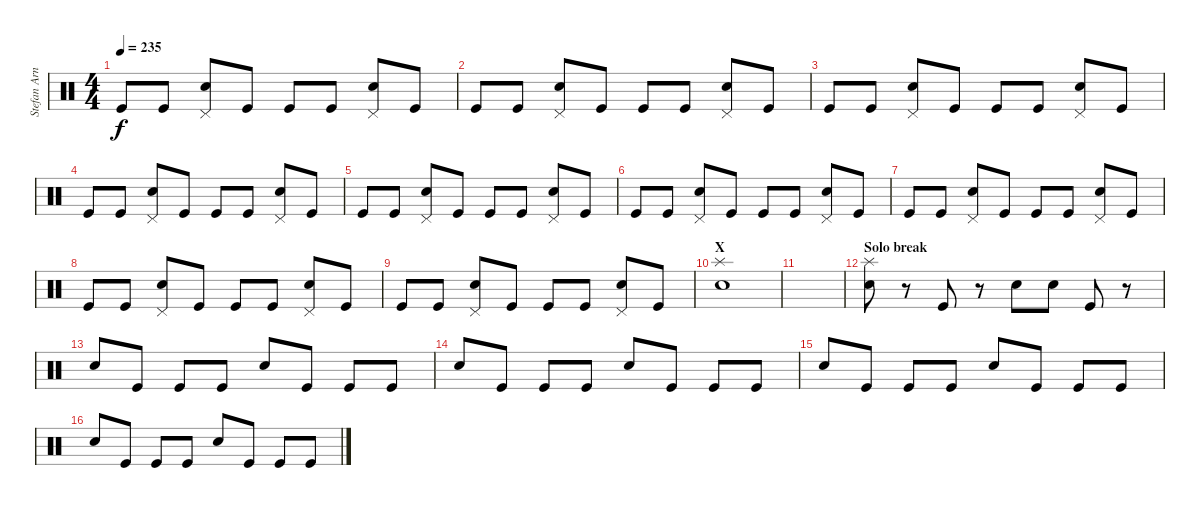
\track ("Stefan Arnold" "Stefan Arn") {instrument percussion}
\staff {score}
\articulation defaults
\ts (4 4)
\tempo 235
\clef neutral
\ks c "Kick (hit)".8{dy f} "Kick (hit)".8
("Electric Snare (hit)" "Pedal Hi-Hat (hit)").8 "Kick (hit)".8 "Kick (hit)".8 "Kick (hit)".8 ("Electric Snare (hit)" "Pedal Hi-Hat (hit)").8 "Kick (hit)".8 |
"Kick (hit)".8 "Kick (hit)".8 ("Electric Snare (hit)" "Pedal Hi-Hat (hit)").8 "Kick (hit)".8 "Kick (hit)".8 "Kick (hit)".8 ("Electric Snare (hit)" "Pedal Hi-Hat (hit)").8 "Kick (hit)".8 |
"Kick (hit)".8 "Kick (hit)".8 ("Electric Snare (hit)" "Pedal Hi-Hat (hit)").8 "Kick (hit)".8 "Kick (hit)".8 "Kick (hit)".8 ("Electric Snare (hit)" "Pedal Hi-Hat (hit)").8 "Kick (hit)".8 |
"Kick (hit)".8 "Kick (hit)".8 ("Electric Snare (hit)" "Pedal Hi-Hat (hit)").8 "Kick (hit)".8 "Kick (hit)".8 "Kick (hit)".8 ("Electric Snare (hit)" "Pedal Hi-Hat (hit)").8 "Kick (hit)".8 |
"Kick (hit)".8 "Kick (hit)".8 ("Electric Snare (hit)" "Pedal Hi-Hat (hit)").8 "Kick (hit)".8 "Kick (hit)".8 "Kick (hit)".8 ("Electric Snare (hit)" "Pedal Hi-Hat (hit)").8 "Kick (hit)".8 |
"Kick (hit)".8 "Kick (hit)".8 ("Electric Snare (hit)" "Pedal Hi-Hat (hit)").8 "Kick (hit)".8 "Kick (hit)".8 "Kick (hit)".8 ("Electric Snare (hit)" "Pedal Hi-Hat (hit)").8 "Kick (hit)".8 |
"Kick (hit)".8 "Kick (hit)".8 ("Electric Snare (hit)" "Pedal Hi-Hat (hit)").8 "Kick (hit)".8 "Kick (hit)".8 "Kick (hit)".8 ("Electric Snare (hit)" "Pedal Hi-Hat (hit)").8 "Kick (hit)".8 |
"Kick (hit)".8 "Kick (hit)".8 ("Electric Snare (hit)" "Pedal Hi-Hat (hit)").8 "Kick (hit)".8 "Kick (hit)".8 "Kick (hit)".8 ("Electric Snare (hit)" "Pedal Hi-Hat (hit)").8 "Kick (hit)".8 |
"Kick (hit)".8 "Kick (hit)".8 ("Electric Snare (hit)" "Pedal Hi-Hat (hit)").8 "Kick (hit)".8 "Kick (hit)".8 "Kick (hit)".8 ("Electric Snare (hit)" "Pedal Hi-Hat (hit)").8 "Kick (hit)".8 |
\section ("" "X")
("Electric Snare (hit)" "Splash (hit)").1 |
|
\section ("" "Solo break")
("Electric Snare (hit)" "Splash (hit)").8 r.8 "Kick (hit)".8 r.8 "Electric Snare (hit)".8 "Electric Snare (hit)".8 "Kick (hit)".8 r.8 |
"Electric Snare (hit)".8 "Kick (hit)".8 "Kick (hit)".8 "Kick (hit)".8 "Electric Snare (hit)".8 "Kick (hit)".8 "Kick (hit)".8 "Kick (hit)".8 |
"Electric Snare (hit)".8 "Kick (hit)".8 "Kick (hit)".8 "Kick (hit)".8 "Electric Snare (hit)".8 "Kick (hit)".8 "Kick (hit)".8 "Kick (hit)".8 |
"Electric Snare (hit)".8 "Kick (hit)".8 "Kick (hit)".8 "Kick (hit)".8 "Electric Snare (hit)".8 "Kick (hit)".8 "Kick (hit)".8 "Kick (hit)".8 |
"Electric Snare (hit)".8 "Kick (hit)".8 "Kick (hit)".8 "Kick (hit)".8 "Electric Snare (hit)".8 "Kick (hit)".8 "Kick (hit)".8 "Kick (hit)".8
